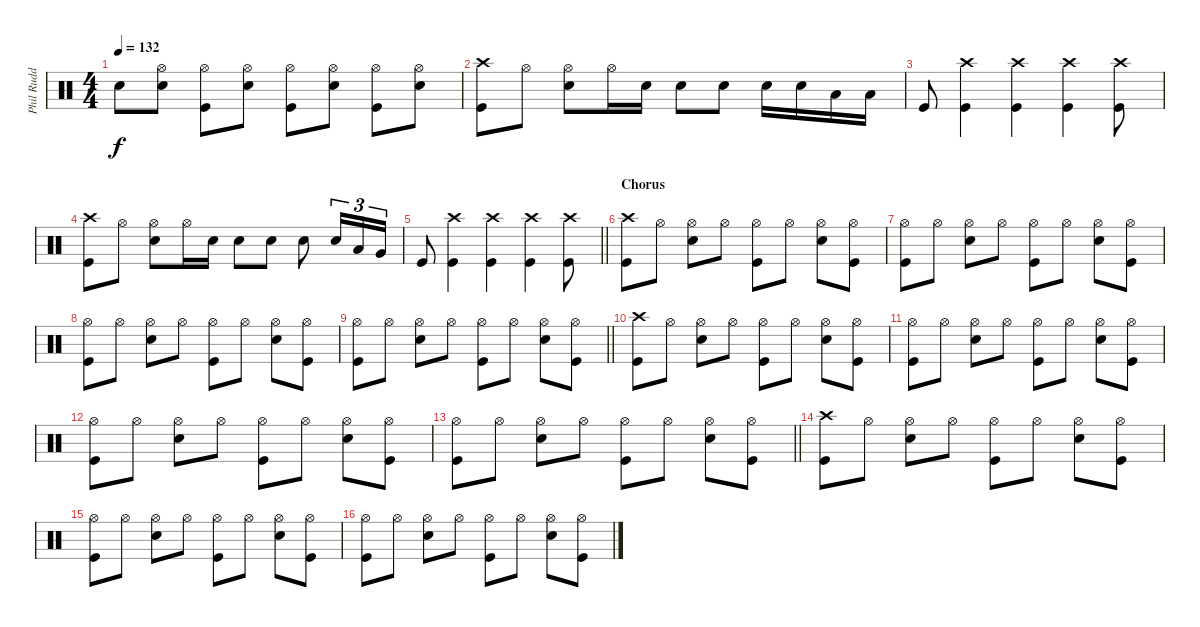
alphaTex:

\track ("Phil Rudd" "Phil Rudd") {instrument percussion}
\staff {score}
\articulation defaults
\ts (4 4)
\tempo 132
\clef neutral
\ks c "Snare (hit) 2".8{dy f}
("Hi-Hat (open)" "Snare (hit) 2").8 ("Hi-Hat (open)" "Kick (hit)").8 ("Hi-Hat (open)" "Snare (hit) 2").8 ("Hi-Hat (open)" "Kick (hit)").8 ("Hi-Hat (open)" "Snare (hit) 2").8 ("Hi-Hat (open)" "Kick (hit)").8 ("Hi-Hat (open)" "Snare (hit) 2").8 |
("Crash high (hit)" "Kick (hit)").8 "Hi-Hat (open)".8 ("Hi-Hat (open)" "Snare (hit) 2").8 "Hi-Hat (open)".16 "Snare (hit) 2".16 "Snare (hit) 2".8 "Snare (hit) 2".8 "Snare (hit) 2".16 "Snare (hit) 2".16 "Low Tom (hit)".16 "Low Tom (hit)".16 |
"Kick (hit)".8 ("Crash high (hit)" "Kick (hit)").4 ("Crash high (hit)" "Kick (hit)").4 ("Crash high (hit)" "Kick (hit)").4 ("Crash high (hit)" "Kick (hit)").8 |
("Crash high (hit)" "Kick (hit)").8 "Hi-Hat (open)".8 ("Hi-Hat (open)" "Snare (hit) 2").8 "Hi-Hat (open)".16 "Snare (hit) 2".16 "Snare (hit) 2".8 "Snare (hit) 2".8 "Snare (hit) 2".8 "Snare (hit) 2".16{tu (3 2)} "Low Tom (hit)".16{tu (3 2)} "Very Low Tom (hit)".16{tu (3 2)} |
\barLineRight lightlight "Kick (hit)".8
("Crash high (hit)" "Kick (hit)").4 ("Crash high (hit)" "Kick (hit)").4 ("Crash high (hit)" "Kick (hit)").4 ("Crash high (hit)" "Kick (hit)").8 |
\section ("" "Chorus")
("Crash high (hit)" "Kick (hit)").8 "Hi-Hat (open)".8 ("Hi-Hat (open)" "Snare (hit) 2").8 "Hi-Hat (open)".8 ("Hi-Hat (open)" "Kick (hit)").8 "Hi-Hat (open)".8 ("Hi-Hat (open)" "Snare (hit) 2").8 ("Hi-Hat (open)" "Kick (hit)").8 |
("Hi-Hat (open)" "Kick (hit)").8 "Hi-Hat (open)".8 ("Hi-Hat (open)" "Snare (hit) 2").8 "Hi-Hat (open)".8 ("Hi-Hat (open)" "Kick (hit)").8 "Hi-Hat (open)".8 ("Hi-Hat (open)" "Snare (hit) 2").8 ("Hi-Hat (open)" "Kick (hit)").8 |
("Hi-Hat (open)" "Kick (hit)").8 "Hi-Hat (open)".8 ("Hi-Hat (open)" "Snare (hit) 2").8 "Hi-Hat (open)".8 ("Hi-Hat (open)" "Kick (hit)").8 "Hi-Hat (open)".8 ("Hi-Hat (open)" "Snare (hit) 2").8 ("Hi-Hat (open)" "Kick (hit)").8 |
\barLineRight lightlight
("Hi-Hat (open)" "Kick (hit)").8 "Hi-Hat (open)".8 ("Hi-Hat (open)" "Snare (hit) 2").8 "Hi-Hat (open)".8 ("Hi-Hat (open)" "Kick (hit)").8 "Hi-Hat (open)".8 ("Hi-Hat (open)" "Snare (hit) 2").8 ("Hi-Hat (open)" "Kick (hit)").8 |
("Crash high (hit)" "Kick (hit)").8 "Hi-Hat (open)".8 ("Hi-Hat (open)" "Snare (hit) 2").8 "Hi-Hat (open)".8 ("Hi-Hat (open)" "Kick (hit)").8 "Hi-Hat (open)".8 ("Hi-Hat (open)" "Snare (hit) 2").8 ("Hi-Hat (open)" "Kick (hit)").8 |
("Hi-Hat (open)" "Kick (hit)").8 "Hi-Hat (open)".8 ("Hi-Hat (open)" "Snare (hit) 2").8 "Hi-Hat (open)".8 ("Hi-Hat (open)" "Kick (hit)").8 "Hi-Hat (open)".8 ("Hi-Hat (open)" "Snare (hit) 2").8 ("Hi-Hat (open)" "Kick (hit)").8 |
("Hi-Hat (open)" "Kick (hit)").8 "Hi-Hat (open)".8 ("Hi-Hat (open)" "Snare (hit) 2").8 "Hi-Hat (open)".8 ("Hi-Hat (open)" "Kick (hit)").8 "Hi-Hat (open)".8 ("Hi-Hat (open)" "Snare (hit) 2").8 ("Hi-Hat (open)" "Kick (hit)").8 |
\barLineRight lightlight
("Hi-Hat (open)" "Kick (hit)").8 "Hi-Hat (open)".8 ("Hi-Hat (open)" "Snare (hit) 2").8 "Hi-Hat (open)".8 ("Hi-Hat (open)" "Kick (hit)").8 "Hi-Hat (open)".8 ("Hi-Hat (open)" "Snare (hit) 2").8 ("Hi-Hat (open)" "Kick (hit)").8 |
("Crash high (hit)" "Kick (hit)").8 "Hi-Hat (open)".8 ("Hi-Hat (open)" "Snare (hit) 2").8 "Hi-Hat (open)".8 ("Hi-Hat (open)" "Kick (hit)").8 "Hi-Hat (open)".8 ("Hi-Hat (open)" "Snare (hit) 2").8 ("Hi-Hat (open)" "Kick (hit)").8 |
("Hi-Hat (open)" "Kick (hit)").8 "Hi-Hat (open)".8 ("Hi-Hat (open)" "Snare (hit) 2").8 "Hi-Hat (open)".8 ("Hi-Hat (open)" "Kick (hit)").8 "Hi-Hat (open)".8 ("Hi-Hat (open)" "Snare (hit) 2").8 ("Hi-Hat (open)" "Kick (hit)").8 |
("Hi-Hat (open)" "Kick (hit)").8 "Hi-Hat (open)".8 ("Hi-Hat (open)" "Snare (hit) 2").8 "Hi-Hat (open)".8 ("Hi-Hat (open)" "Kick (hit)").8 "Hi-Hat (open)".8 ("Hi-Hat (open)" "Snare (hit) 2").8 ("Hi-Hat (open)" "Kick (hit)").8
